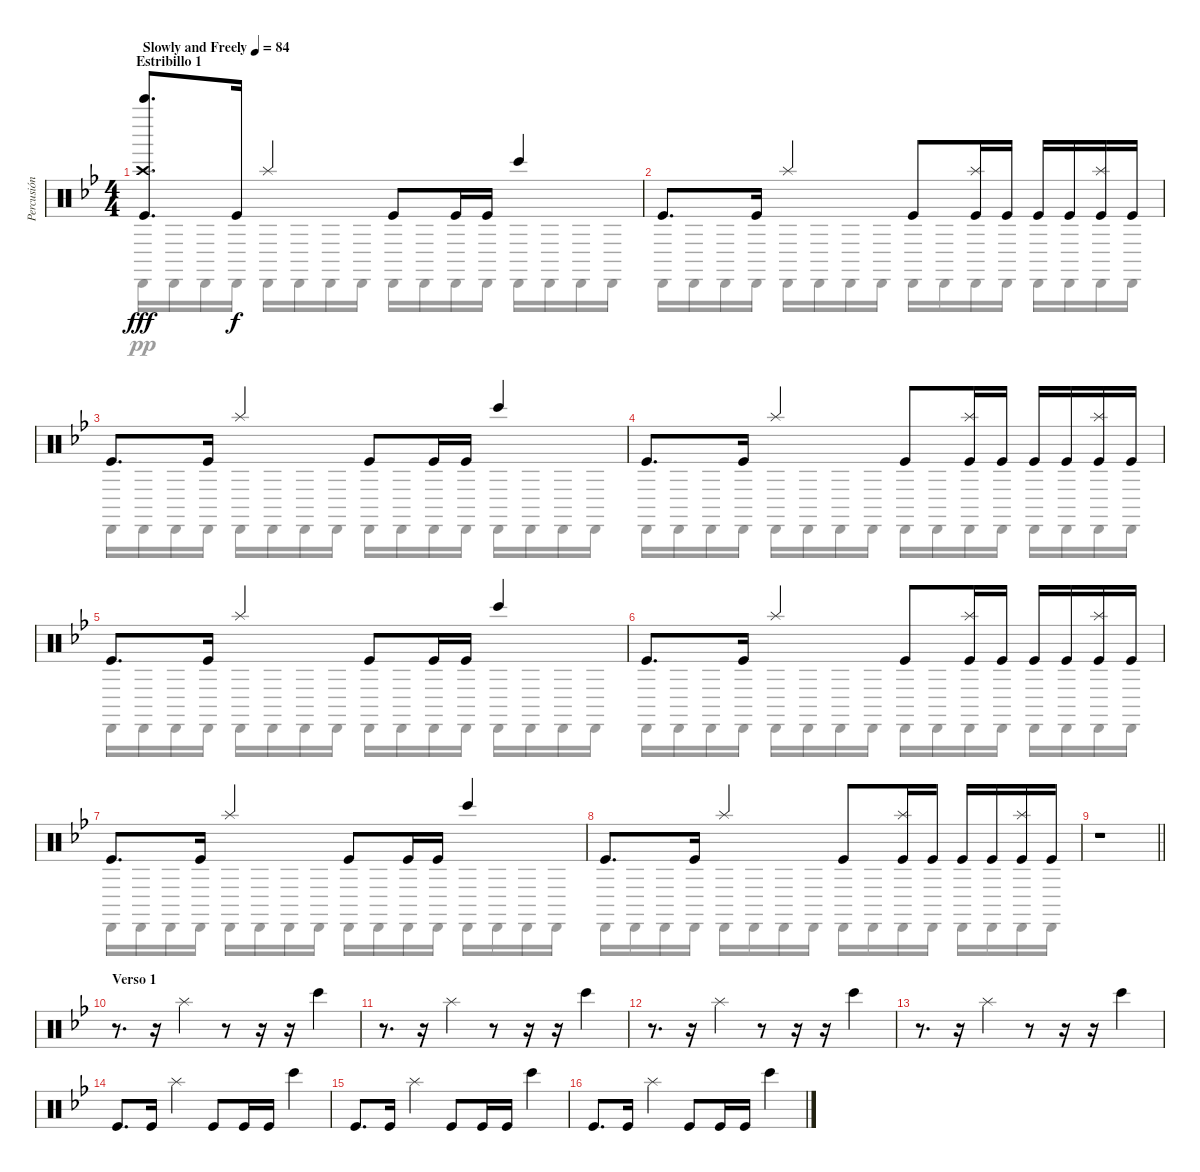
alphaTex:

\track ("Percusión" "Percusión") {instrument percussion}
\staff {score}
\articulation defaults
\voice
\ts (4 4)
\section ("" "Estribillo 1")
\tempo (84 "Slowly and Freely")
\clef neutral
\ks bb
("Bell Tree (hit)" "Crash high (hit)" "Kick (hit)").8{d dy fff} "Kick (hit)".16{dy f} "Splash (hit)".4 "Kick (hit)".8 "Kick (hit)".16 "Kick (hit)".16 "Bongo High (hit)".4 |
"Kick (hit)".8{d} "Kick (hit)".16 "Splash (hit)".4 "Kick (hit)".8 ("Splash (hit)" "Kick (hit)").16 "Kick (hit)".16 "Kick (hit)".16 "Kick (hit)".16 ("Splash (hit)" "Kick (hit)").16 "Kick (hit)".16 |
"Kick (hit)".8{d} "Kick (hit)".16 "Splash (hit)".4 "Kick (hit)".8 "Kick (hit)".16 "Kick (hit)".16 "Bongo High (hit)".4 |
"Kick (hit)".8{d} "Kick (hit)".16 "Splash (hit)".4 "Kick (hit)".8 ("Splash (hit)" "Kick (hit)").16 "Kick (hit)".16 "Kick (hit)".16 "Kick (hit)".16 ("Splash (hit)" "Kick (hit)").16 "Kick (hit)".16 |
"Kick (hit)".8{d} "Kick (hit)".16 "Splash (hit)".4 "Kick (hit)".8 "Kick (hit)".16 "Kick (hit)".16 "Bongo High (hit)".4 |
"Kick (hit)".8{d} "Kick (hit)".16 "Splash (hit)".4 "Kick (hit)".8 ("Splash (hit)" "Kick (hit)").16 "Kick (hit)".16 "Kick (hit)".16 "Kick (hit)".16 ("Splash (hit)" "Kick (hit)").16 "Kick (hit)".16 |
"Kick (hit)".8{d} "Kick (hit)".16 "Splash (hit)".4 "Kick (hit)".8 "Kick (hit)".16 "Kick (hit)".16 "Bongo High (hit)".4 |
"Kick (hit)".8{d} "Kick (hit)".16 "Splash (hit)".4 "Kick (hit)".8 ("Splash (hit)" "Kick (hit)").16 "Kick (hit)".16 "Kick (hit)".16 "Kick (hit)".16 ("Splash (hit)" "Kick (hit)").16 "Kick (hit)".16 |
\barLineRight lightlight
r.1 |
\section ("" "Verso 1")
r.8{d} r.16 "Splash (hit)".4 r.8 r.16 r.16 "Bongo High (hit)".4 |
r.8{d} r.16 "Splash (hit)".4 r.8 r.16 r.16 "Bongo High (hit)".4 |
r.8{d} r.16 "Splash (hit)".4 r.8 r.16 r.16 "Bongo High (hit)".4 |
r.8{d} r.16 "Splash (hit)".4 r.8 r.16 r.16 "Bongo High (hit)".4 |
"Kick (hit)".8{d} "Kick (hit)".16 "Splash (hit)".4 "Kick (hit)".8 "Kick (hit)".16 "Kick (hit)".16 "Bongo High (hit)".4 |
"Kick (hit)".8{d} "Kick (hit)".16 "Splash (hit)".4 "Kick (hit)".8 "Kick (hit)".16 "Kick (hit)".16 "Bongo High (hit)".4 |
"Kick (hit)".8{d} "Kick (hit)".16 "Splash (hit)".4 "Kick (hit)".8 "Kick (hit)".16 "Kick (hit)".16 "Bongo High (hit)".4
\voice
\clef neutral
\ottava regular
\simile none
\ks bb "Cabasa (hit)".16{dy pp} "Cabasa (hit)".16 "Cabasa (hit)".16 "Cabasa (hit)".16 "Cabasa (hit)".16 "Cabasa (hit)".16 "Cabasa (hit)".16 "Cabasa (hit)".16 "Cabasa (hit)".16 "Cabasa (hit)".16 "Cabasa (hit)".16 "Cabasa (hit)".16 "Cabasa (hit)".16 "Cabasa (hit)".16 "Cabasa (hit)".16 "Cabasa (hit)".16
|
"Cabasa (hit)".16 "Cabasa (hit)".16 "Cabasa (hit)".16 "Cabasa (hit)".16 "Cabasa (hit)".16 "Cabasa (hit)".16 "Cabasa (hit)".16 "Cabasa (hit)".16 "Cabasa (hit)".16 "Cabasa (hit)".16 "Cabasa (hit)".16 "Cabasa (hit)".16 "Cabasa (hit)".16 "Cabasa (hit)".16 "Cabasa (hit)".16 "Cabasa (hit)".16 |
"Cabasa (hit)".16 "Cabasa (hit)".16 "Cabasa (hit)".16 "Cabasa (hit)".16 "Cabasa (hit)".16 "Cabasa (hit)".16 "Cabasa (hit)".16 "Cabasa (hit)".16 "Cabasa (hit)".16 "Cabasa (hit)".16 "Cabasa (hit)".16 "Cabasa (hit)".16 "Cabasa (hit)".16 "Cabasa (hit)".16 "Cabasa (hit)".16 "Cabasa (hit)".16 |
"Cabasa (hit)".16 "Cabasa (hit)".16 "Cabasa (hit)".16 "Cabasa (hit)".16 "Cabasa (hit)".16 "Cabasa (hit)".16 "Cabasa (hit)".16 "Cabasa (hit)".16 "Cabasa (hit)".16 "Cabasa (hit)".16 "Cabasa (hit)".16 "Cabasa (hit)".16 "Cabasa (hit)".16 "Cabasa (hit)".16 "Cabasa (hit)".16 "Cabasa (hit)".16 |
"Cabasa (hit)".16 "Cabasa (hit)".16 "Cabasa (hit)".16 "Cabasa (hit)".16 "Cabasa (hit)".16 "Cabasa (hit)".16 "Cabasa (hit)".16 "Cabasa (hit)".16 "Cabasa (hit)".16 "Cabasa (hit)".16 "Cabasa (hit)".16 "Cabasa (hit)".16 "Cabasa (hit)".16 "Cabasa (hit)".16 "Cabasa (hit)".16 "Cabasa (hit)".16 |
"Cabasa (hit)".16 "Cabasa (hit)".16 "Cabasa (hit)".16 "Cabasa (hit)".16 "Cabasa (hit)".16 "Cabasa (hit)".16 "Cabasa (hit)".16 "Cabasa (hit)".16 "Cabasa (hit)".16 "Cabasa (hit)".16 "Cabasa (hit)".16 "Cabasa (hit)".16 "Cabasa (hit)".16 "Cabasa (hit)".16 "Cabasa (hit)".16 "Cabasa (hit)".16 |
"Cabasa (hit)".16 "Cabasa (hit)".16 "Cabasa (hit)".16 "Cabasa (hit)".16 "Cabasa (hit)".16 "Cabasa (hit)".16 "Cabasa (hit)".16 "Cabasa (hit)".16 "Cabasa (hit)".16 "Cabasa (hit)".16 "Cabasa (hit)".16 "Cabasa (hit)".16 "Cabasa (hit)".16 "Cabasa (hit)".16 "Cabasa (hit)".16 "Cabasa (hit)".16 |
"Cabasa (hit)".16 "Cabasa (hit)".16 "Cabasa (hit)".16 "Cabasa (hit)".16 "Cabasa (hit)".16 "Cabasa (hit)".16 "Cabasa (hit)".16 "Cabasa (hit)".16 "Cabasa (hit)".16 "Cabasa (hit)".16 "Cabasa (hit)".16 "Cabasa (hit)".16 "Cabasa (hit)".16 "Cabasa (hit)".16 "Cabasa (hit)".16 "Cabasa (hit)".16 |
\barLineRight lightlight
|
|
|
|
|
|
|
